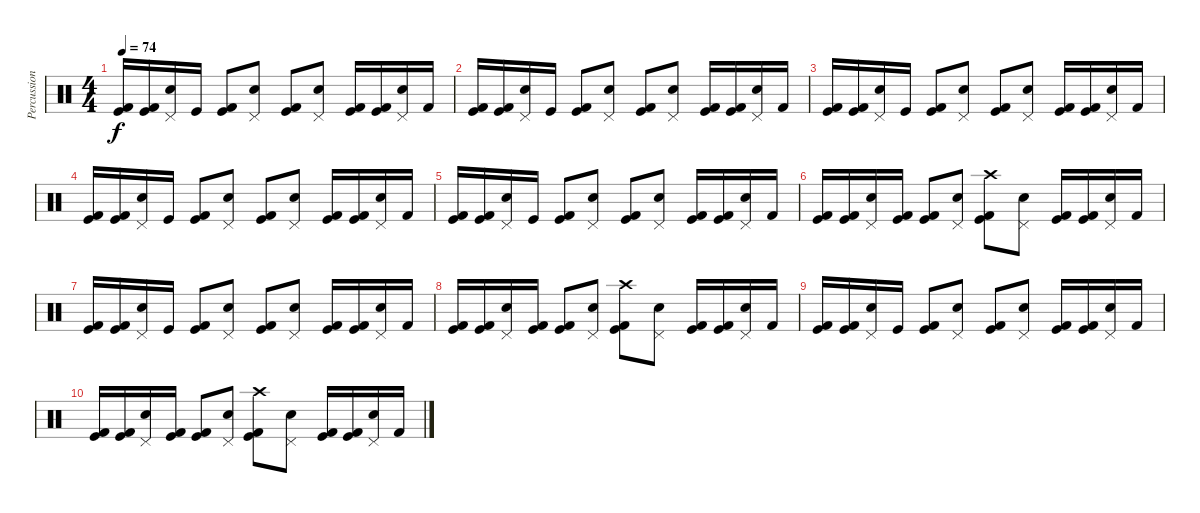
\track ("Percussion" "Percussion") {instrument percussion}
\staff {score}
\articulation defaults
\ts (4 4)
\tempo 74
\clef neutral
\ks c
("Kick (hit) 2" "Kick (hit)").16{dy f} ("Kick (hit) 2" "Kick (hit)").16 ("Electric Snare (hit)" "Pedal Hi-Hat (hit)").16 "Kick (hit)".16 ("Kick (hit) 2" "Kick (hit)").8 ("Electric Snare (hit)" "Pedal Hi-Hat (hit)").8 ("Kick (hit) 2" "Kick (hit)").8 ("Electric Snare (hit)" "Pedal Hi-Hat (hit)").8 ("Kick (hit) 2" "Kick (hit)").16 ("Kick (hit) 2" "Kick (hit)").16 ("Electric Snare (hit)" "Pedal Hi-Hat (hit)").16 "Kick (hit) 2".16 |
("Kick (hit) 2" "Kick (hit)").16 ("Kick (hit) 2" "Kick (hit)").16 ("Electric Snare (hit)" "Pedal Hi-Hat (hit)").16 "Kick (hit)".16 ("Kick (hit) 2" "Kick (hit)").8 ("Electric Snare (hit)" "Pedal Hi-Hat (hit)").8 ("Kick (hit) 2" "Kick (hit)").8 ("Electric Snare (hit)" "Pedal Hi-Hat (hit)").8 ("Kick (hit) 2" "Kick (hit)").16 ("Kick (hit) 2" "Kick (hit)").16 ("Electric Snare (hit)" "Pedal Hi-Hat (hit)").16 "Kick (hit) 2".16 |
("Kick (hit) 2" "Kick (hit)").16 ("Kick (hit) 2" "Kick (hit)").16 ("Electric Snare (hit)" "Pedal Hi-Hat (hit)").16 "Kick (hit)".16 ("Kick (hit) 2" "Kick (hit)").8 ("Electric Snare (hit)" "Pedal Hi-Hat (hit)").8 ("Kick (hit) 2" "Kick (hit)").8 ("Electric Snare (hit)" "Pedal Hi-Hat (hit)").8 ("Kick (hit) 2" "Kick (hit)").16 ("Kick (hit) 2" "Kick (hit)").16 ("Electric Snare (hit)" "Pedal Hi-Hat (hit)").16 "Kick (hit) 2".16 |
("Kick (hit) 2" "Kick (hit)").16 ("Kick (hit) 2" "Kick (hit)").16 ("Electric Snare (hit)" "Pedal Hi-Hat (hit)").16 "Kick (hit)".16 ("Kick (hit) 2" "Kick (hit)").8 ("Electric Snare (hit)" "Pedal Hi-Hat (hit)").8 ("Kick (hit) 2" "Kick (hit)").8 ("Electric Snare (hit)" "Pedal Hi-Hat (hit)").8 ("Kick (hit) 2" "Kick (hit)").16 ("Kick (hit) 2" "Kick (hit)").16 ("Electric Snare (hit)" "Pedal Hi-Hat (hit)").16 "Kick (hit) 2".16 |
("Kick (hit) 2" "Kick (hit)").16 ("Kick (hit) 2" "Kick (hit)").16 ("Electric Snare (hit)" "Pedal Hi-Hat (hit)").16 "Kick (hit)".16 ("Kick (hit) 2" "Kick (hit)").8 ("Electric Snare (hit)" "Pedal Hi-Hat (hit)").8 ("Kick (hit) 2" "Kick (hit)").8 ("Electric Snare (hit)" "Pedal Hi-Hat (hit)").8 ("Kick (hit) 2" "Kick (hit)").16 ("Kick (hit) 2" "Kick (hit)").16 ("Electric Snare (hit)" "Pedal Hi-Hat (hit)").16 "Kick (hit) 2".16 |
("Kick (hit) 2" "Kick (hit)").16 ("Kick (hit) 2" "Kick (hit)").16 ("Electric Snare (hit)" "Pedal Hi-Hat (hit)").16 ("Kick (hit) 2" "Kick (hit)").16 ("Kick (hit) 2" "Kick (hit)").8 ("Electric Snare (hit)" "Pedal Hi-Hat (hit)").8 ("Kick (hit) 2" "Kick (hit)" "Crash high (hit)").8 ("Electric Snare (hit)" "Pedal Hi-Hat (hit)").8 ("Kick (hit) 2" "Kick (hit)").16 ("Kick (hit) 2" "Kick (hit)").16 ("Electric Snare (hit)" "Pedal Hi-Hat (hit)").16 "Kick (hit) 2".16 |
("Kick (hit) 2" "Kick (hit)").16 ("Kick (hit) 2" "Kick (hit)").16 ("Electric Snare (hit)" "Pedal Hi-Hat (hit)").16 "Kick (hit)".16 ("Kick (hit) 2" "Kick (hit)").8 ("Electric Snare (hit)" "Pedal Hi-Hat (hit)").8 ("Kick (hit) 2" "Kick (hit)").8 ("Electric Snare (hit)" "Pedal Hi-Hat (hit)").8 ("Kick (hit) 2" "Kick (hit)").16 ("Kick (hit) 2" "Kick (hit)").16 ("Electric Snare (hit)" "Pedal Hi-Hat (hit)").16 "Kick (hit) 2".16 |
("Kick (hit) 2" "Kick (hit)").16 ("Kick (hit) 2" "Kick (hit)").16 ("Electric Snare (hit)" "Pedal Hi-Hat (hit)").16 ("Kick (hit) 2" "Kick (hit)").16 ("Kick (hit) 2" "Kick (hit)").8 ("Electric Snare (hit)" "Pedal Hi-Hat (hit)").8 ("Kick (hit) 2" "Kick (hit)" "Crash high (hit)").8 ("Electric Snare (hit)" "Pedal Hi-Hat (hit)").8 ("Kick (hit) 2" "Kick (hit)").16 ("Kick (hit) 2" "Kick (hit)").16 ("Electric Snare (hit)" "Pedal Hi-Hat (hit)").16 "Kick (hit) 2".16 |
("Kick (hit) 2" "Kick (hit)").16 ("Kick (hit) 2" "Kick (hit)").16 ("Electric Snare (hit)" "Pedal Hi-Hat (hit)").16 "Kick (hit)".16 ("Kick (hit) 2" "Kick (hit)").8 ("Electric Snare (hit)" "Pedal Hi-Hat (hit)").8 ("Kick (hit) 2" "Kick (hit)").8 ("Electric Snare (hit)" "Pedal Hi-Hat (hit)").8 ("Kick (hit) 2" "Kick (hit)").16 ("Kick (hit) 2" "Kick (hit)").16 ("Electric Snare (hit)" "Pedal Hi-Hat (hit)").16 "Kick (hit) 2".16 |
("Kick (hit) 2" "Kick (hit)").16 ("Kick (hit) 2" "Kick (hit)").16 ("Electric Snare (hit)" "Pedal Hi-Hat (hit)").16 ("Kick (hit) 2" "Kick (hit)").16 ("Kick (hit) 2" "Kick (hit)").8 ("Electric Snare (hit)" "Pedal Hi-Hat (hit)").8 ("Kick (hit) 2" "Kick (hit)" "Crash high (hit)").8 ("Electric Snare (hit)" "Pedal Hi-Hat (hit)").8 ("Kick (hit) 2" "Kick (hit)").16 ("Kick (hit) 2" "Kick (hit)").16 ("Electric Snare (hit)" "Pedal Hi-Hat (hit)").16 "Kick (hit) 2".16
